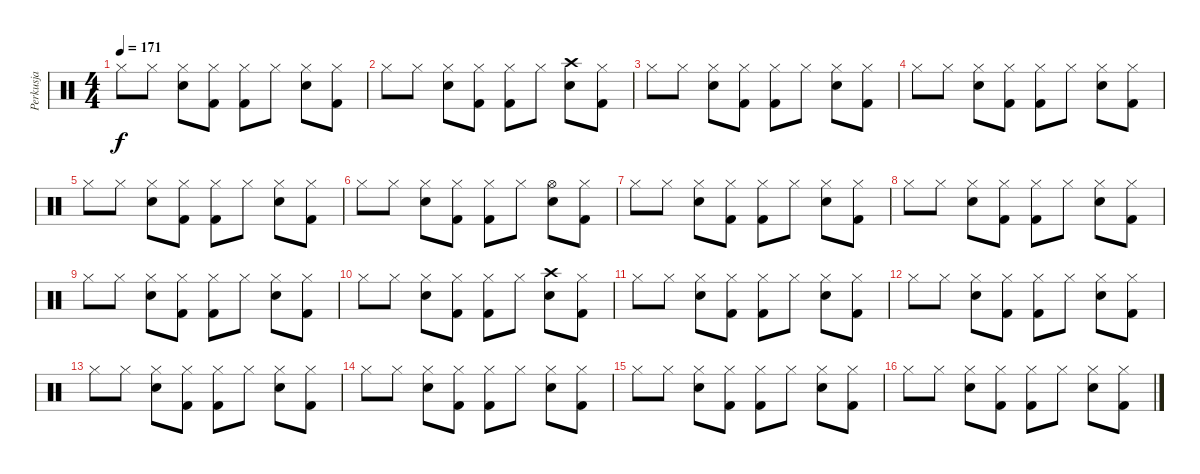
\track ("Perkusja" "Perkusja") {instrument percussion}
\staff {score}
\articulation defaults
\ts (4 4)
\tempo 171
\clef neutral
\ks c "Hi-Hat (closed)".8{dy f} "Hi-Hat (closed)".8
("Hi-Hat (closed)" "Snare (hit) 2").8 ("Hi-Hat (closed)" "Kick (hit) 2").8 ("Hi-Hat (closed)" "Kick (hit) 2").8 "Hi-Hat (closed)".8 ("Hi-Hat (closed)" "Snare (hit) 2").8 ("Hi-Hat (closed)" "Kick (hit) 2").8 |
"Hi-Hat (closed)".8 "Hi-Hat (closed)".8 ("Hi-Hat (closed)" "Snare (hit) 2").8 ("Hi-Hat (closed)" "Kick (hit) 2").8 ("Hi-Hat (closed)" "Kick (hit) 2").8 "Hi-Hat (closed)".8 ("Crash high (hit)" "Snare (hit) 2").8 ("Hi-Hat (closed)" "Kick (hit) 2").8 |
"Hi-Hat (closed)".8 "Hi-Hat (closed)".8 ("Hi-Hat (closed)" "Snare (hit) 2").8 ("Hi-Hat (closed)" "Kick (hit) 2").8 ("Hi-Hat (closed)" "Kick (hit) 2").8 "Hi-Hat (closed)".8 ("Hi-Hat (closed)" "Snare (hit) 2").8 ("Hi-Hat (closed)" "Kick (hit) 2").8 |
"Hi-Hat (closed)".8 "Hi-Hat (closed)".8 ("Hi-Hat (closed)" "Snare (hit) 2").8 ("Hi-Hat (closed)" "Kick (hit) 2").8 ("Hi-Hat (closed)" "Kick (hit) 2").8 "Hi-Hat (closed)".8 ("Hi-Hat (closed)" "Snare (hit) 2").8 ("Hi-Hat (closed)" "Kick (hit) 2").8 |
"Hi-Hat (closed)".8 "Hi-Hat (closed)".8 ("Hi-Hat (closed)" "Snare (hit) 2").8 ("Hi-Hat (closed)" "Kick (hit) 2").8 ("Hi-Hat (closed)" "Kick (hit) 2").8 "Hi-Hat (closed)".8 ("Hi-Hat (closed)" "Snare (hit) 2").8 ("Hi-Hat (closed)" "Kick (hit) 2").8 |
"Hi-Hat (closed)".8 "Hi-Hat (closed)".8 ("Hi-Hat (closed)" "Snare (hit) 2").8 ("Hi-Hat (closed)" "Kick (hit) 2").8 ("Hi-Hat (closed)" "Kick (hit) 2").8 "Hi-Hat (closed)".8 ("Hi-Hat (open)" "Snare (hit) 2").8 ("Hi-Hat (closed)" "Kick (hit) 2").8 |
"Hi-Hat (closed)".8 "Hi-Hat (closed)".8 ("Hi-Hat (closed)" "Snare (hit) 2").8 ("Hi-Hat (closed)" "Kick (hit) 2").8 ("Hi-Hat (closed)" "Kick (hit) 2").8 "Hi-Hat (closed)".8 ("Hi-Hat (closed)" "Snare (hit) 2").8 ("Hi-Hat (closed)" "Kick (hit) 2").8 |
"Hi-Hat (closed)".8 "Hi-Hat (closed)".8 ("Hi-Hat (closed)" "Snare (hit) 2").8 ("Hi-Hat (closed)" "Kick (hit) 2").8 ("Hi-Hat (closed)" "Kick (hit) 2").8 "Hi-Hat (closed)".8 ("Hi-Hat (closed)" "Snare (hit) 2").8 ("Hi-Hat (closed)" "Kick (hit) 2").8 |
"Hi-Hat (closed)".8 "Hi-Hat (closed)".8 ("Hi-Hat (closed)" "Snare (hit) 2").8 ("Hi-Hat (closed)" "Kick (hit) 2").8 ("Hi-Hat (closed)" "Kick (hit) 2").8 "Hi-Hat (closed)".8 ("Hi-Hat (closed)" "Snare (hit) 2").8 ("Hi-Hat (closed)" "Kick (hit) 2").8 |
"Hi-Hat (closed)".8 "Hi-Hat (closed)".8 ("Hi-Hat (closed)" "Snare (hit) 2").8 ("Hi-Hat (closed)" "Kick (hit) 2").8 ("Hi-Hat (closed)" "Kick (hit) 2").8 "Hi-Hat (closed)".8 ("Crash high (hit)" "Snare (hit) 2").8 ("Hi-Hat (closed)" "Kick (hit) 2").8 |
"Hi-Hat (closed)".8 "Hi-Hat (closed)".8 ("Hi-Hat (closed)" "Snare (hit) 2").8 ("Hi-Hat (closed)" "Kick (hit) 2").8 ("Hi-Hat (closed)" "Kick (hit) 2").8 "Hi-Hat (closed)".8 ("Hi-Hat (closed)" "Snare (hit) 2").8 ("Hi-Hat (closed)" "Kick (hit) 2").8 |
"Hi-Hat (closed)".8 "Hi-Hat (closed)".8 ("Hi-Hat (closed)" "Snare (hit) 2").8 ("Hi-Hat (closed)" "Kick (hit) 2").8 ("Hi-Hat (closed)" "Kick (hit) 2").8 "Hi-Hat (closed)".8 ("Hi-Hat (closed)" "Snare (hit) 2").8 ("Hi-Hat (closed)" "Kick (hit) 2").8 |
"Hi-Hat (closed)".8 "Hi-Hat (closed)".8 ("Hi-Hat (closed)" "Snare (hit) 2").8 ("Hi-Hat (closed)" "Kick (hit) 2").8 ("Hi-Hat (closed)" "Kick (hit) 2").8 "Hi-Hat (closed)".8 ("Hi-Hat (closed)" "Snare (hit) 2").8 ("Hi-Hat (closed)" "Kick (hit) 2").8 |
"Hi-Hat (closed)".8 "Hi-Hat (closed)".8 ("Hi-Hat (closed)" "Snare (hit) 2").8 ("Hi-Hat (closed)" "Kick (hit) 2").8 ("Hi-Hat (closed)" "Kick (hit) 2").8 "Hi-Hat (closed)".8 ("Hi-Hat (closed)" "Snare (hit) 2").8 ("Hi-Hat (closed)" "Kick (hit) 2").8 |
"Hi-Hat (closed)".8 "Hi-Hat (closed)".8 ("Hi-Hat (closed)" "Snare (hit) 2").8 ("Hi-Hat (closed)" "Kick (hit) 2").8 ("Hi-Hat (closed)" "Kick (hit) 2").8 "Hi-Hat (closed)".8 ("Hi-Hat (closed)" "Snare (hit) 2").8 ("Hi-Hat (closed)" "Kick (hit) 2").8 |
"Hi-Hat (closed)".8 "Hi-Hat (closed)".8 ("Hi-Hat (closed)" "Snare (hit) 2").8 ("Hi-Hat (closed)" "Kick (hit) 2").8 ("Hi-Hat (closed)" "Kick (hit) 2").8 "Hi-Hat (closed)".8 ("Hi-Hat (closed)" "Snare (hit) 2").8 ("Hi-Hat (closed)" "Kick (hit) 2").8
